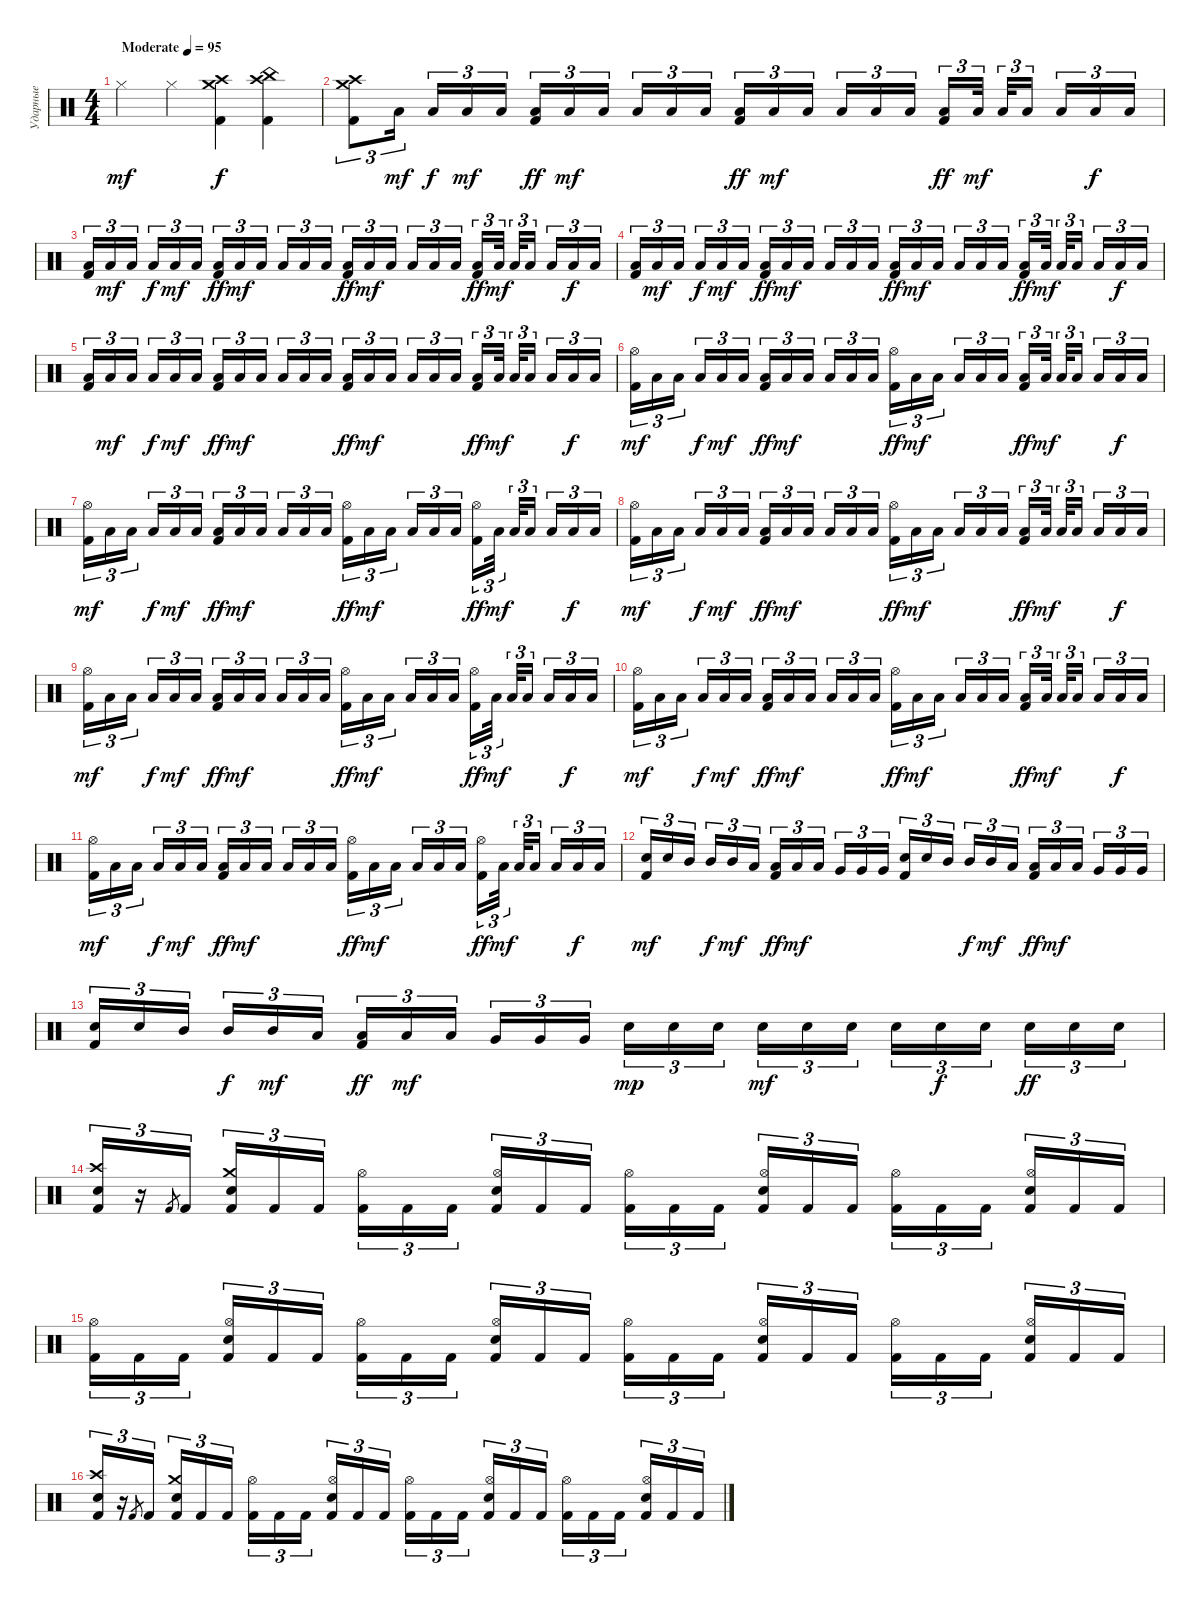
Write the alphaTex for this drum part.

\track ("Ударные" "Ударные") {instrument percussion}
\staff
\articulation defaults
\ts (4 4)
\tempo (95 "Moderate")
\clef neutral
\ks c "Hi-Hat (closed)".4{dy mf} "Hi-Hat (closed)".4
("Kick (hit) 2" "Crash high (hit)" "Crash medium (hit)").4{dy f} ("Kick (hit) 2" "Crash high (hit)" "China (hit)").4 |
("Crash medium (hit)" "Crash high (hit)" "Kick (hit) 2").8{tu (3 2)} "Low Floor Tom (hit)".16{tu (3 2) dy mf beam splitsecondary} "Low Floor Tom (hit)".16{tu (3 2) dy f} "Low Floor Tom (hit)".16{tu (3 2) dy mf} "Low Floor Tom (hit)".16{tu (3 2)} ("Kick (hit) 2" "Low Floor Tom (hit)").16{tu (3 2) dy ff} "Low Floor Tom (hit)".16{tu (3 2) dy mf} "Low Floor Tom (hit)".16{tu (3 2) beam splitsecondary} "Low Floor Tom (hit)".16{tu (3 2)} "Low Floor Tom (hit)".16{tu (3 2)} "Low Floor Tom (hit)".16{tu (3 2)} ("Kick (hit) 2" "Low Floor Tom (hit)").16{tu (3 2) dy ff} "Low Floor Tom (hit)".16{tu (3 2) dy mf} "Low Floor Tom (hit)".16{tu (3 2) beam splitsecondary} "Low Floor Tom (hit)".16{tu (3 2)} "Low Floor Tom (hit)".16{tu (3 2)} "Low Floor Tom (hit)".16{tu (3 2)} ("Kick (hit) 2" "Low Floor Tom (hit)").16{tu (3 2) dy ff} "Low Floor Tom (hit)".32{tu (3 2) dy mf beam splitsecondary} "Low Floor Tom (hit)".32{tu (3 2)} "Low Floor Tom (hit)".16{tu (3 2) beam splitsecondary} "Low Floor Tom (hit)".16{tu (3 2)} "Low Floor Tom (hit)".16{tu (3 2) dy f} "Low Floor Tom (hit)".16{tu (3 2)} |
("Low Floor Tom (hit)" "Kick (hit) 2").16{tu (3 2)} "Low Floor Tom (hit)".16{tu (3 2) dy mf} "Low Floor Tom (hit)".16{tu (3 2) beam splitsecondary} "Low Floor Tom (hit)".16{tu (3 2) dy f} "Low Floor Tom (hit)".16{tu (3 2) dy mf} "Low Floor Tom (hit)".16{tu (3 2)} ("Kick (hit) 2" "Low Floor Tom (hit)").16{tu (3 2) dy ff} "Low Floor Tom (hit)".16{tu (3 2) dy mf} "Low Floor Tom (hit)".16{tu (3 2) beam splitsecondary} "Low Floor Tom (hit)".16{tu (3 2)} "Low Floor Tom (hit)".16{tu (3 2)} "Low Floor Tom (hit)".16{tu (3 2)} ("Kick (hit) 2" "Low Floor Tom (hit)").16{tu (3 2) dy ff} "Low Floor Tom (hit)".16{tu (3 2) dy mf} "Low Floor Tom (hit)".16{tu (3 2) beam splitsecondary} "Low Floor Tom (hit)".16{tu (3 2)} "Low Floor Tom (hit)".16{tu (3 2)} "Low Floor Tom (hit)".16{tu (3 2)} ("Kick (hit) 2" "Low Floor Tom (hit)").16{tu (3 2) dy ff} "Low Floor Tom (hit)".32{tu (3 2) dy mf beam splitsecondary} "Low Floor Tom (hit)".32{tu (3 2)} "Low Floor Tom (hit)".16{tu (3 2) beam splitsecondary} "Low Floor Tom (hit)".16{tu (3 2)} "Low Floor Tom (hit)".16{tu (3 2) dy f} "Low Floor Tom (hit)".16{tu (3 2)} |
("Low Floor Tom (hit)" "Kick (hit) 2").16{tu (3 2)} "Low Floor Tom (hit)".16{tu (3 2) dy mf} "Low Floor Tom (hit)".16{tu (3 2) beam splitsecondary} "Low Floor Tom (hit)".16{tu (3 2) dy f} "Low Floor Tom (hit)".16{tu (3 2) dy mf} "Low Floor Tom (hit)".16{tu (3 2)} ("Kick (hit) 2" "Low Floor Tom (hit)").16{tu (3 2) dy ff} "Low Floor Tom (hit)".16{tu (3 2) dy mf} "Low Floor Tom (hit)".16{tu (3 2) beam splitsecondary} "Low Floor Tom (hit)".16{tu (3 2)} "Low Floor Tom (hit)".16{tu (3 2)} "Low Floor Tom (hit)".16{tu (3 2)} ("Kick (hit) 2" "Low Floor Tom (hit)").16{tu (3 2) dy ff} "Low Floor Tom (hit)".16{tu (3 2) dy mf} "Low Floor Tom (hit)".16{tu (3 2) beam splitsecondary} "Low Floor Tom (hit)".16{tu (3 2)} "Low Floor Tom (hit)".16{tu (3 2)} "Low Floor Tom (hit)".16{tu (3 2)} ("Kick (hit) 2" "Low Floor Tom (hit)").16{tu (3 2) dy ff} "Low Floor Tom (hit)".32{tu (3 2) dy mf beam splitsecondary} "Low Floor Tom (hit)".32{tu (3 2)} "Low Floor Tom (hit)".16{tu (3 2) beam splitsecondary} "Low Floor Tom (hit)".16{tu (3 2)} "Low Floor Tom (hit)".16{tu (3 2) dy f} "Low Floor Tom (hit)".16{tu (3 2)} |
("Low Floor Tom (hit)" "Kick (hit) 2").16{tu (3 2)} "Low Floor Tom (hit)".16{tu (3 2) dy mf} "Low Floor Tom (hit)".16{tu (3 2) beam splitsecondary} "Low Floor Tom (hit)".16{tu (3 2) dy f} "Low Floor Tom (hit)".16{tu (3 2) dy mf} "Low Floor Tom (hit)".16{tu (3 2)} ("Kick (hit) 2" "Low Floor Tom (hit)").16{tu (3 2) dy ff} "Low Floor Tom (hit)".16{tu (3 2) dy mf} "Low Floor Tom (hit)".16{tu (3 2) beam splitsecondary} "Low Floor Tom (hit)".16{tu (3 2)} "Low Floor Tom (hit)".16{tu (3 2)} "Low Floor Tom (hit)".16{tu (3 2)} ("Kick (hit) 2" "Low Floor Tom (hit)").16{tu (3 2) dy ff} "Low Floor Tom (hit)".16{tu (3 2) dy mf} "Low Floor Tom (hit)".16{tu (3 2) beam splitsecondary} "Low Floor Tom (hit)".16{tu (3 2)} "Low Floor Tom (hit)".16{tu (3 2)} "Low Floor Tom (hit)".16{tu (3 2)} ("Kick (hit) 2" "Low Floor Tom (hit)").16{tu (3 2) dy ff} "Low Floor Tom (hit)".32{tu (3 2) dy mf beam splitsecondary} "Low Floor Tom (hit)".32{tu (3 2)} "Low Floor Tom (hit)".16{tu (3 2) beam splitsecondary} "Low Floor Tom (hit)".16{tu (3 2)} "Low Floor Tom (hit)".16{tu (3 2) dy f} "Low Floor Tom (hit)".16{tu (3 2)} |
("Hi-Hat (open)" "Kick (hit) 2").16{tu (3 2) dy mf} "Low Floor Tom (hit)".16{tu (3 2)} "Low Floor Tom (hit)".16{tu (3 2) beam splitsecondary} "Low Floor Tom (hit)".16{tu (3 2) dy f} "Low Floor Tom (hit)".16{tu (3 2) dy mf} "Low Floor Tom (hit)".16{tu (3 2)} ("Kick (hit) 2" "Low Floor Tom (hit)").16{tu (3 2) dy ff} "Low Floor Tom (hit)".16{tu (3 2) dy mf} "Low Floor Tom (hit)".16{tu (3 2) beam splitsecondary} "Low Floor Tom (hit)".16{tu (3 2)} "Low Floor Tom (hit)".16{tu (3 2)} "Low Floor Tom (hit)".16{tu (3 2)} ("Kick (hit) 2" "Hi-Hat (open)").16{tu (3 2) dy ff} "Low Floor Tom (hit)".16{tu (3 2) dy mf} "Low Floor Tom (hit)".16{tu (3 2) beam splitsecondary} "Low Floor Tom (hit)".16{tu (3 2)} "Low Floor Tom (hit)".16{tu (3 2)} "Low Floor Tom (hit)".16{tu (3 2)} ("Kick (hit) 2" "Low Floor Tom (hit)").16{tu (3 2) dy ff} "Low Floor Tom (hit)".32{tu (3 2) dy mf beam splitsecondary} "Low Floor Tom (hit)".32{tu (3 2)} "Low Floor Tom (hit)".16{tu (3 2) beam splitsecondary} "Low Floor Tom (hit)".16{tu (3 2)} "Low Floor Tom (hit)".16{tu (3 2) dy f} "Low Floor Tom (hit)".16{tu (3 2)} |
("Hi-Hat (open)" "Kick (hit) 2").16{tu (3 2) dy mf} "Low Floor Tom (hit)".16{tu (3 2)} "Low Floor Tom (hit)".16{tu (3 2) beam splitsecondary} "Low Floor Tom (hit)".16{tu (3 2) dy f} "Low Floor Tom (hit)".16{tu (3 2) dy mf} "Low Floor Tom (hit)".16{tu (3 2)} ("Kick (hit) 2" "Low Floor Tom (hit)").16{tu (3 2) dy ff} "Low Floor Tom (hit)".16{tu (3 2) dy mf} "Low Floor Tom (hit)".16{tu (3 2) beam splitsecondary} "Low Floor Tom (hit)".16{tu (3 2)} "Low Floor Tom (hit)".16{tu (3 2)} "Low Floor Tom (hit)".16{tu (3 2)} ("Kick (hit) 2" "Hi-Hat (open)").16{tu (3 2) dy ff} "Low Floor Tom (hit)".16{tu (3 2) dy mf} "Low Floor Tom (hit)".16{tu (3 2) beam splitsecondary} "Low Floor Tom (hit)".16{tu (3 2)} "Low Floor Tom (hit)".16{tu (3 2)} "Low Floor Tom (hit)".16{tu (3 2)} ("Kick (hit) 2" "Hi-Hat (open)").16{tu (3 2) dy ff} "Low Floor Tom (hit)".32{tu (3 2) dy mf beam splitsecondary} "Low Floor Tom (hit)".32{tu (3 2)} "Low Floor Tom (hit)".16{tu (3 2) beam splitsecondary} "Low Floor Tom (hit)".16{tu (3 2)} "Low Floor Tom (hit)".16{tu (3 2) dy f} "Low Floor Tom (hit)".16{tu (3 2)} |
("Hi-Hat (open)" "Kick (hit) 2").16{tu (3 2) dy mf} "Low Floor Tom (hit)".16{tu (3 2)} "Low Floor Tom (hit)".16{tu (3 2) beam splitsecondary} "Low Floor Tom (hit)".16{tu (3 2) dy f} "Low Floor Tom (hit)".16{tu (3 2) dy mf} "Low Floor Tom (hit)".16{tu (3 2)} ("Kick (hit) 2" "Low Floor Tom (hit)").16{tu (3 2) dy ff} "Low Floor Tom (hit)".16{tu (3 2) dy mf} "Low Floor Tom (hit)".16{tu (3 2) beam splitsecondary} "Low Floor Tom (hit)".16{tu (3 2)} "Low Floor Tom (hit)".16{tu (3 2)} "Low Floor Tom (hit)".16{tu (3 2)} ("Kick (hit) 2" "Hi-Hat (open)").16{tu (3 2) dy ff} "Low Floor Tom (hit)".16{tu (3 2) dy mf} "Low Floor Tom (hit)".16{tu (3 2) beam splitsecondary} "Low Floor Tom (hit)".16{tu (3 2)} "Low Floor Tom (hit)".16{tu (3 2)} "Low Floor Tom (hit)".16{tu (3 2)} ("Kick (hit) 2" "Low Floor Tom (hit)").16{tu (3 2) dy ff} "Low Floor Tom (hit)".32{tu (3 2) dy mf beam splitsecondary} "Low Floor Tom (hit)".32{tu (3 2)} "Low Floor Tom (hit)".16{tu (3 2) beam splitsecondary} "Low Floor Tom (hit)".16{tu (3 2)} "Low Floor Tom (hit)".16{tu (3 2) dy f} "Low Floor Tom (hit)".16{tu (3 2)} |
("Hi-Hat (open)" "Kick (hit) 2").16{tu (3 2) dy mf} "Low Floor Tom (hit)".16{tu (3 2)} "Low Floor Tom (hit)".16{tu (3 2) beam splitsecondary} "Low Floor Tom (hit)".16{tu (3 2) dy f} "Low Floor Tom (hit)".16{tu (3 2) dy mf} "Low Floor Tom (hit)".16{tu (3 2)} ("Kick (hit) 2" "Low Floor Tom (hit)").16{tu (3 2) dy ff} "Low Floor Tom (hit)".16{tu (3 2) dy mf} "Low Floor Tom (hit)".16{tu (3 2) beam splitsecondary} "Low Floor Tom (hit)".16{tu (3 2)} "Low Floor Tom (hit)".16{tu (3 2)} "Low Floor Tom (hit)".16{tu (3 2)} ("Kick (hit) 2" "Hi-Hat (open)").16{tu (3 2) dy ff} "Low Floor Tom (hit)".16{tu (3 2) dy mf} "Low Floor Tom (hit)".16{tu (3 2) beam splitsecondary} "Low Floor Tom (hit)".16{tu (3 2)} "Low Floor Tom (hit)".16{tu (3 2)} "Low Floor Tom (hit)".16{tu (3 2)} ("Kick (hit) 2" "Hi-Hat (open)").16{tu (3 2) dy ff} "Low Floor Tom (hit)".32{tu (3 2) dy mf beam splitsecondary} "Low Floor Tom (hit)".32{tu (3 2)} "Low Floor Tom (hit)".16{tu (3 2) beam splitsecondary} "Low Floor Tom (hit)".16{tu (3 2)} "Low Floor Tom (hit)".16{tu (3 2) dy f} "Low Floor Tom (hit)".16{tu (3 2)} |
("Hi-Hat (open)" "Kick (hit) 2").16{tu (3 2) dy mf} "Low Floor Tom (hit)".16{tu (3 2)} "Low Floor Tom (hit)".16{tu (3 2) beam splitsecondary} "Low Floor Tom (hit)".16{tu (3 2) dy f} "Low Floor Tom (hit)".16{tu (3 2) dy mf} "Low Floor Tom (hit)".16{tu (3 2)} ("Kick (hit) 2" "Low Floor Tom (hit)").16{tu (3 2) dy ff} "Low Floor Tom (hit)".16{tu (3 2) dy mf} "Low Floor Tom (hit)".16{tu (3 2) beam splitsecondary} "Low Floor Tom (hit)".16{tu (3 2)} "Low Floor Tom (hit)".16{tu (3 2)} "Low Floor Tom (hit)".16{tu (3 2)} ("Kick (hit) 2" "Hi-Hat (open)").16{tu (3 2) dy ff} "Low Floor Tom (hit)".16{tu (3 2) dy mf} "Low Floor Tom (hit)".16{tu (3 2) beam splitsecondary} "Low Floor Tom (hit)".16{tu (3 2)} "Low Floor Tom (hit)".16{tu (3 2)} "Low Floor Tom (hit)".16{tu (3 2)} ("Kick (hit) 2" "Low Floor Tom (hit)").16{tu (3 2) dy ff} "Low Floor Tom (hit)".32{tu (3 2) dy mf beam splitsecondary} "Low Floor Tom (hit)".32{tu (3 2)} "Low Floor Tom (hit)".16{tu (3 2) beam splitsecondary} "Low Floor Tom (hit)".16{tu (3 2)} "Low Floor Tom (hit)".16{tu (3 2) dy f} "Low Floor Tom (hit)".16{tu (3 2)} |
("Hi-Hat (open)" "Kick (hit) 2").16{tu (3 2) dy mf} "Low Floor Tom (hit)".16{tu (3 2)} "Low Floor Tom (hit)".16{tu (3 2) beam splitsecondary} "Low Floor Tom (hit)".16{tu (3 2) dy f} "Low Floor Tom (hit)".16{tu (3 2) dy mf} "Low Floor Tom (hit)".16{tu (3 2)} ("Kick (hit) 2" "Low Floor Tom (hit)").16{tu (3 2) dy ff} "Low Floor Tom (hit)".16{tu (3 2) dy mf} "Low Floor Tom (hit)".16{tu (3 2) beam splitsecondary} "Low Floor Tom (hit)".16{tu (3 2)} "Low Floor Tom (hit)".16{tu (3 2)} "Low Floor Tom (hit)".16{tu (3 2)} ("Kick (hit) 2" "Hi-Hat (open)").16{tu (3 2) dy ff} "Low Floor Tom (hit)".16{tu (3 2) dy mf} "Low Floor Tom (hit)".16{tu (3 2) beam splitsecondary} "Low Floor Tom (hit)".16{tu (3 2)} "Low Floor Tom (hit)".16{tu (3 2)} "Low Floor Tom (hit)".16{tu (3 2)} ("Kick (hit) 2" "Hi-Hat (open)").16{tu (3 2) dy ff} "Low Floor Tom (hit)".32{tu (3 2) dy mf beam splitsecondary} "Low Floor Tom (hit)".32{tu (3 2)} "Low Floor Tom (hit)".16{tu (3 2) beam splitsecondary} "Low Floor Tom (hit)".16{tu (3 2)} "Low Floor Tom (hit)".16{tu (3 2) dy f} "Low Floor Tom (hit)".16{tu (3 2)} |
("Electric Snare (hit)" "Kick (hit) 2").16{tu (3 2) dy mf} "Electric Snare (hit)".16{tu (3 2)} "Mid Tom (hit)".16{tu (3 2) beam splitsecondary} "Mid Tom (hit)".16{tu (3 2) dy f} "Mid Tom (hit)".16{tu (3 2) dy mf} "Low Tom (hit)".16{tu (3 2)} ("Kick (hit) 2" "Low Tom (hit)").16{tu (3 2) dy ff} "Low Tom (hit)".16{tu (3 2) dy mf} "Low Tom (hit)".16{tu (3 2) beam splitsecondary} "Very Low Tom (hit)".16{tu (3 2)} "Very Low Tom (hit)".16{tu (3 2)} "Very Low Tom (hit)".16{tu (3 2)} ("Electric Snare (hit)" "Kick (hit) 2").16{tu (3 2)} "Electric Snare (hit)".16{tu (3 2)} "Mid Tom (hit)".16{tu (3 2) beam splitsecondary} "Mid Tom (hit)".16{tu (3 2) dy f} "Mid Tom (hit)".16{tu (3 2) dy mf} "Low Tom (hit)".16{tu (3 2)} ("Kick (hit) 2" "Low Tom (hit)").16{tu (3 2) dy ff} "Low Tom (hit)".16{tu (3 2) dy mf} "Low Tom (hit)".16{tu (3 2) beam splitsecondary} "Very Low Tom (hit)".16{tu (3 2)} "Very Low Tom (hit)".16{tu (3 2)} "Very Low Tom (hit)".16{tu (3 2)} |
("Electric Snare (hit)" "Kick (hit) 2").16{tu (3 2)} "Electric Snare (hit)".16{tu (3 2)} "Mid Tom (hit)".16{tu (3 2) beam splitsecondary} "Mid Tom (hit)".16{tu (3 2) dy f} "Mid Tom (hit)".16{tu (3 2) dy mf} "Low Tom (hit)".16{tu (3 2)} ("Kick (hit) 2" "Low Tom (hit)").16{tu (3 2) dy ff} "Low Tom (hit)".16{tu (3 2) dy mf} "Low Tom (hit)".16{tu (3 2) beam splitsecondary} "Very Low Tom (hit)".16{tu (3 2)} "Very Low Tom (hit)".16{tu (3 2)} "Very Low Tom (hit)".16{tu (3 2)} "Electric Snare (hit)".16{tu (3 2) dy mp} "Electric Snare (hit)".16{tu (3 2)} "Electric Snare (hit)".16{tu (3 2) beam splitsecondary} "Electric Snare (hit)".16{tu (3 2) dy mf} "Electric Snare (hit)".16{tu (3 2)} "Electric Snare (hit)".16{tu (3 2)} "Electric Snare (hit)".16{tu (3 2)} "Electric Snare (hit)".16{tu (3 2) dy f} "Electric Snare (hit)".16{tu (3 2) beam splitsecondary} "Electric Snare (hit)".16{tu (3 2) dy ff} "Electric Snare (hit)".16{tu (3 2)} "Electric Snare (hit)".16{tu (3 2)} |
("Crash high (hit)" "Electric Snare (hit)" "Kick (hit) 2").16{tu (3 2)} r.16{tu (3 2)} "Kick (hit) 2".8{gr} "Kick (hit) 2".16{tu (3 2) beam splitsecondary} ("Crash medium (hit)" "Electric Snare (hit)" "Kick (hit) 2").16{tu (3 2)} "Kick (hit) 2".16{tu (3 2)} "Kick (hit) 2".16{tu (3 2)} ("Hi-Hat (open)" "Kick (hit) 2").16{tu (3 2)} "Kick (hit) 2".16{tu (3 2)} "Kick (hit) 2".16{tu (3 2) beam splitsecondary} ("Hi-Hat (open)" "Electric Snare (hit)" "Kick (hit) 2").16{tu (3 2)} "Kick (hit) 2".16{tu (3 2)} "Kick (hit) 2".16{tu (3 2)} ("Hi-Hat (open)" "Kick (hit) 2").16{tu (3 2)} "Kick (hit) 2".16{tu (3 2)} "Kick (hit) 2".16{tu (3 2) beam splitsecondary} ("Hi-Hat (open)" "Electric Snare (hit)" "Kick (hit) 2").16{tu (3 2)} "Kick (hit) 2".16{tu (3 2)} "Kick (hit) 2".16{tu (3 2)} ("Hi-Hat (open)" "Kick (hit) 2").16{tu (3 2)} "Kick (hit) 2".16{tu (3 2)} "Kick (hit) 2".16{tu (3 2) beam splitsecondary} ("Hi-Hat (open)" "Electric Snare (hit)" "Kick (hit) 2").16{tu (3 2)} "Kick (hit) 2".16{tu (3 2)} "Kick (hit) 2".16{tu (3 2)} |
("Hi-Hat (open)" "Kick (hit) 2").16{tu (3 2)} "Kick (hit) 2".16{tu (3 2)} "Kick (hit) 2".16{tu (3 2) beam splitsecondary} ("Hi-Hat (open)" "Electric Snare (hit)" "Kick (hit) 2").16{tu (3 2)} "Kick (hit) 2".16{tu (3 2)} "Kick (hit) 2".16{tu (3 2)} ("Hi-Hat (open)" "Kick (hit) 2").16{tu (3 2)} "Kick (hit) 2".16{tu (3 2)} "Kick (hit) 2".16{tu (3 2) beam splitsecondary} ("Hi-Hat (open)" "Electric Snare (hit)" "Kick (hit) 2").16{tu (3 2)} "Kick (hit) 2".16{tu (3 2)} "Kick (hit) 2".16{tu (3 2)} ("Hi-Hat (open)" "Kick (hit) 2").16{tu (3 2)} "Kick (hit) 2".16{tu (3 2)} "Kick (hit) 2".16{tu (3 2) beam splitsecondary} ("Hi-Hat (open)" "Electric Snare (hit)" "Kick (hit) 2").16{tu (3 2)} "Kick (hit) 2".16{tu (3 2)} "Kick (hit) 2".16{tu (3 2)} ("Hi-Hat (open)" "Kick (hit) 2").16{tu (3 2)} "Kick (hit) 2".16{tu (3 2)} "Kick (hit) 2".16{tu (3 2) beam splitsecondary} ("Hi-Hat (open)" "Electric Snare (hit)" "Kick (hit) 2").16{tu (3 2)} "Kick (hit) 2".16{tu (3 2)} "Kick (hit) 2".16{tu (3 2)} |
("Crash high (hit)" "Electric Snare (hit)" "Kick (hit) 2").16{tu (3 2)} r.16{tu (3 2)} "Kick (hit) 2".8{gr} "Kick (hit) 2".16{tu (3 2) beam splitsecondary} ("Crash medium (hit)" "Electric Snare (hit)" "Kick (hit) 2").16{tu (3 2)} "Kick (hit) 2".16{tu (3 2)} "Kick (hit) 2".16{tu (3 2)} ("Hi-Hat (open)" "Kick (hit) 2").16{tu (3 2)} "Kick (hit) 2".16{tu (3 2)} "Kick (hit) 2".16{tu (3 2) beam splitsecondary} ("Hi-Hat (open)" "Electric Snare (hit)" "Kick (hit) 2").16{tu (3 2)} "Kick (hit) 2".16{tu (3 2)} "Kick (hit) 2".16{tu (3 2)} ("Hi-Hat (open)" "Kick (hit) 2").16{tu (3 2)} "Kick (hit) 2".16{tu (3 2)} "Kick (hit) 2".16{tu (3 2) beam splitsecondary} ("Hi-Hat (open)" "Electric Snare (hit)" "Kick (hit) 2").16{tu (3 2)} "Kick (hit) 2".16{tu (3 2)} "Kick (hit) 2".16{tu (3 2)} ("Hi-Hat (open)" "Kick (hit) 2").16{tu (3 2)} "Kick (hit) 2".16{tu (3 2)} "Kick (hit) 2".16{tu (3 2) beam splitsecondary} ("Hi-Hat (open)" "Electric Snare (hit)" "Kick (hit) 2").16{tu (3 2)} "Kick (hit) 2".16{tu (3 2)} "Kick (hit) 2".16{tu (3 2)}
